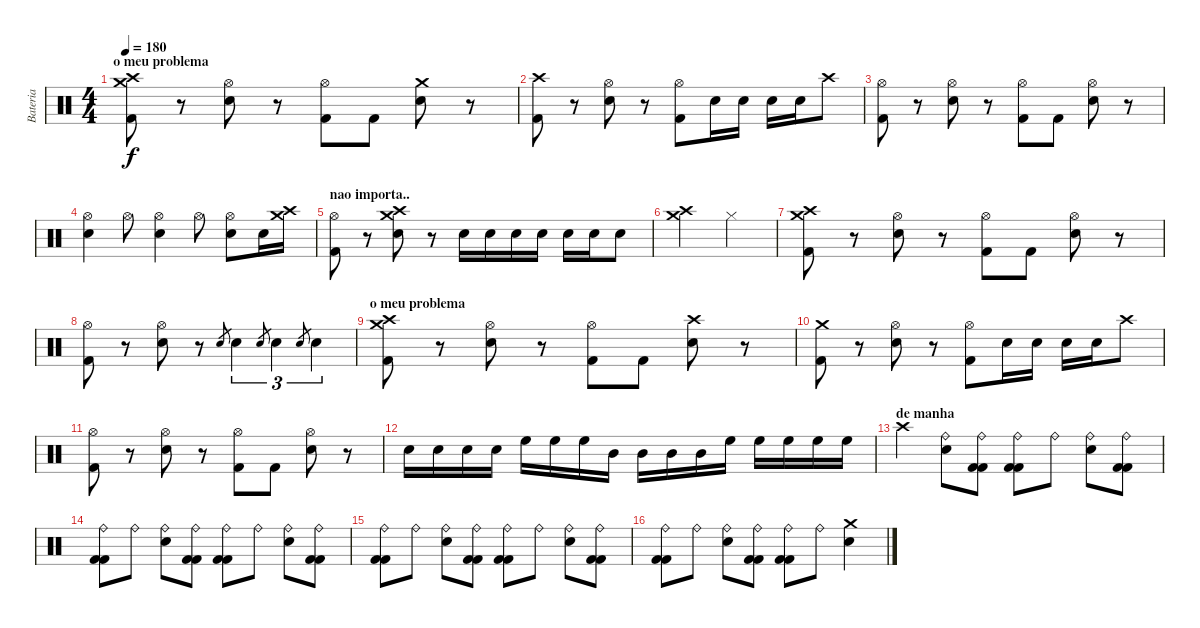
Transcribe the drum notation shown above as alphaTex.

\track ("Bateria" "Bateria") {instrument percussion}
\staff {score}
\articulation defaults
\ts (4 4)
\section ("" "o meu problema")
\tempo 180
\clef neutral
\ks c
("Crash medium (hit)" "Crash high (hit)" "Kick (hit) 2").8{dy f} r.8 ("Hi-Hat (open)" "Electric Snare (hit)").8 r.8 ("Hi-Hat (open)" "Kick (hit) 2").8 "Kick (hit) 2".8 ("Crash medium (hit)" "Electric Snare (hit)").8 r.8 |
("Crash high (hit)" "Kick (hit) 2").8 r.8 ("Hi-Hat (open)" "Electric Snare (hit)").8 r.8 ("Hi-Hat (open)" "Kick (hit) 2").8 "Electric Snare (hit)".16 "Electric Snare (hit)".16 "Electric Snare (hit)".16 "Electric Snare (hit)".16 "Crash high (hit)".8 |
("Hi-Hat (open)" "Kick (hit) 2").8 r.8 ("Hi-Hat (open)" "Electric Snare (hit)").8 r.8 ("Hi-Hat (open)" "Kick (hit) 2").8 "Kick (hit) 2".8 ("Hi-Hat (open)" "Electric Snare (hit)").8 r.8 |
("Hi-Hat (open)" "Electric Snare (hit)").4 "Hi-Hat (open)".8 ("Hi-Hat (open)" "Electric Snare (hit)").4 "Hi-Hat (open)".8 ("Hi-Hat (open)" "Electric Snare (hit)").8 "Electric Snare (hit)".16 ("Crash medium (hit)" "Crash high (hit)").16 |
\section ("" "nao importa..")
("Hi-Hat (open)" "Kick (hit) 2").8 r.8 ("Crash medium (hit)" "Crash high (hit)" "Electric Snare (hit)").8 r.8 "Electric Snare (hit)".16 "Electric Snare (hit)".16 "Electric Snare (hit)".16 "Electric Snare (hit)".16 "Electric Snare (hit)".16 "Electric Snare (hit)".16 "Electric Snare (hit)".8 |
("Crash medium (hit)" "Crash high (hit)").2 "Hi-Hat (closed)".2 |
("Crash medium (hit)" "Crash high (hit)" "Kick (hit) 2").8 r.8 ("Hi-Hat (open)" "Electric Snare (hit)").8 r.8 ("Hi-Hat (open)" "Kick (hit) 2").8 "Kick (hit) 2".8 ("Hi-Hat (open)" "Electric Snare (hit)").8 r.8 |
("Hi-Hat (open)" "Kick (hit) 2").8 r.8 ("Hi-Hat (open)" "Electric Snare (hit)").8 r.8 "Electric Snare (hit)".8{gr} "Electric Snare (hit)".4{tu (3 2)} "Electric Snare (hit)".8{gr} "Electric Snare (hit)".4{tu (3 2)} "Electric Snare (hit)".8{gr} "Electric Snare (hit)".4{tu (3 2)} |
\section ("" "o meu problema")
("Crash medium (hit)" "Crash high (hit)" "Kick (hit) 2").8 r.8 ("Hi-Hat (open)" "Electric Snare (hit)").8 r.8 ("Hi-Hat (open)" "Kick (hit) 2").8 "Kick (hit) 2".8 ("Crash high (hit)" "Electric Snare (hit)").8 r.8 |
("Crash medium (hit)" "Kick (hit) 2").8 r.8 ("Hi-Hat (open)" "Electric Snare (hit)").8 r.8 ("Hi-Hat (open)" "Kick (hit) 2").8 "Electric Snare (hit)".16 "Electric Snare (hit)".16 "Electric Snare (hit)".16 "Electric Snare (hit)".16 "Crash high (hit)".8 |
("Hi-Hat (open)" "Kick (hit) 2").8 r.8 ("Hi-Hat (open)" "Electric Snare (hit)").8 r.8 ("Hi-Hat (open)" "Kick (hit) 2").8 "Kick (hit) 2".8 ("Hi-Hat (open)" "Electric Snare (hit)").8 r.8 |
"Electric Snare (hit)".16 "Electric Snare (hit)".16 "Electric Snare (hit)".16 "Electric Snare (hit)".16 "High Floor Tom (hit)".16 "High Floor Tom (hit)".16 "High Floor Tom (hit)".16 "Mid Tom (hit)".16 "Mid Tom (hit)".16 "Mid Tom (hit)".16 "Mid Tom (hit)".16 "High Floor Tom (hit)".16 "High Floor Tom (hit)".16 "High Floor Tom (hit)".16 "High Floor Tom (hit)".16 "High Floor Tom (hit)".16 |
\section ("" "de manha")
"Crash high (hit)".4 ("Ride (bell)" "Electric Snare (hit)").8 ("Ride (bell)" "Kick (hit) 2" "Kick (hit) 2").8 ("Ride (bell)" "Kick (hit) 2" "Kick (hit) 2").8 "Ride (bell)".8 ("Ride (bell)" "Electric Snare (hit)").8 ("Ride (bell)" "Kick (hit) 2" "Kick (hit) 2").8 |
("Ride (bell)" "Kick (hit) 2" "Kick (hit) 2").8 "Ride (bell)".8 ("Ride (bell)" "Electric Snare (hit)").8 ("Ride (bell)" "Kick (hit) 2" "Kick (hit) 2").8 ("Ride (bell)" "Kick (hit) 2" "Kick (hit) 2").8 "Ride (bell)".8 ("Ride (bell)" "Electric Snare (hit)").8 ("Ride (bell)" "Kick (hit) 2" "Kick (hit) 2").8 |
("Ride (bell)" "Kick (hit) 2" "Kick (hit) 2").8 "Ride (bell)".8 ("Ride (bell)" "Electric Snare (hit)").8 ("Ride (bell)" "Kick (hit) 2" "Kick (hit) 2").8 ("Ride (bell)" "Kick (hit) 2" "Kick (hit) 2").8 "Ride (bell)".8 ("Ride (bell)" "Electric Snare (hit)").8 ("Ride (bell)" "Kick (hit) 2" "Kick (hit) 2").8 |
("Ride (bell)" "Kick (hit) 2" "Kick (hit) 2").8 "Ride (bell)".8 ("Ride (bell)" "Electric Snare (hit)").8 ("Ride (bell)" "Kick (hit) 2" "Kick (hit) 2").8 ("Ride (bell)" "Kick (hit) 2" "Kick (hit) 2").8 "Ride (bell)".8 ("Crash medium (hit)" "Electric Snare (hit)").4
